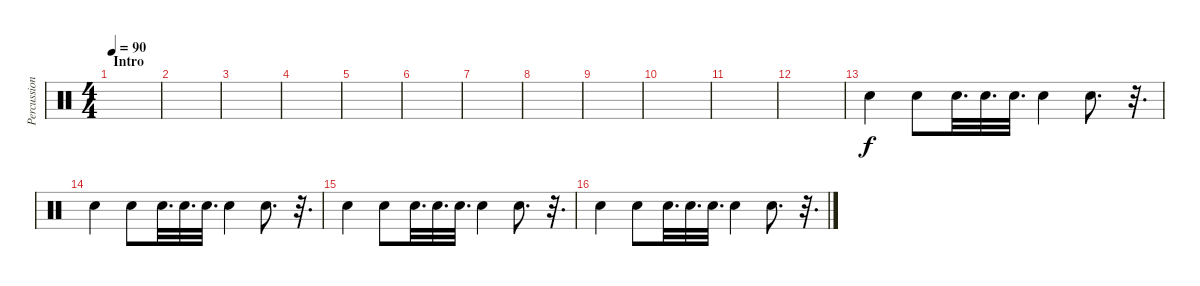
\track ("Percussion" "Percussion") {instrument percussion}
\staff {score}
\articulation defaults
\ts (4 4)
\section ("" "Intro")
\tempo 90
\clef neutral
\ks c
|
|
|
|
|
|
|
|
|
|
|
|
"Electric Snare (hit)".4 "Electric Snare (hit)".8 "Electric Snare (hit)".32{d} "Electric Snare (hit)".32{d} "Electric Snare (hit)".32{d} "Electric Snare (hit)".4 "Electric Snare (hit)".8{d} r.32{d} |
"Electric Snare (hit)".4 "Electric Snare (hit)".8 "Electric Snare (hit)".32{d} "Electric Snare (hit)".32{d} "Electric Snare (hit)".32{d} "Electric Snare (hit)".4 "Electric Snare (hit)".8{d} r.32{d} |
"Electric Snare (hit)".4 "Electric Snare (hit)".8 "Electric Snare (hit)".32{d} "Electric Snare (hit)".32{d} "Electric Snare (hit)".32{d} "Electric Snare (hit)".4 "Electric Snare (hit)".8{d} r.32{d} |
"Electric Snare (hit)".4 "Electric Snare (hit)".8 "Electric Snare (hit)".32{d} "Electric Snare (hit)".32{d} "Electric Snare (hit)".32{d} "Electric Snare (hit)".4 "Electric Snare (hit)".8{d} r.32{d}
